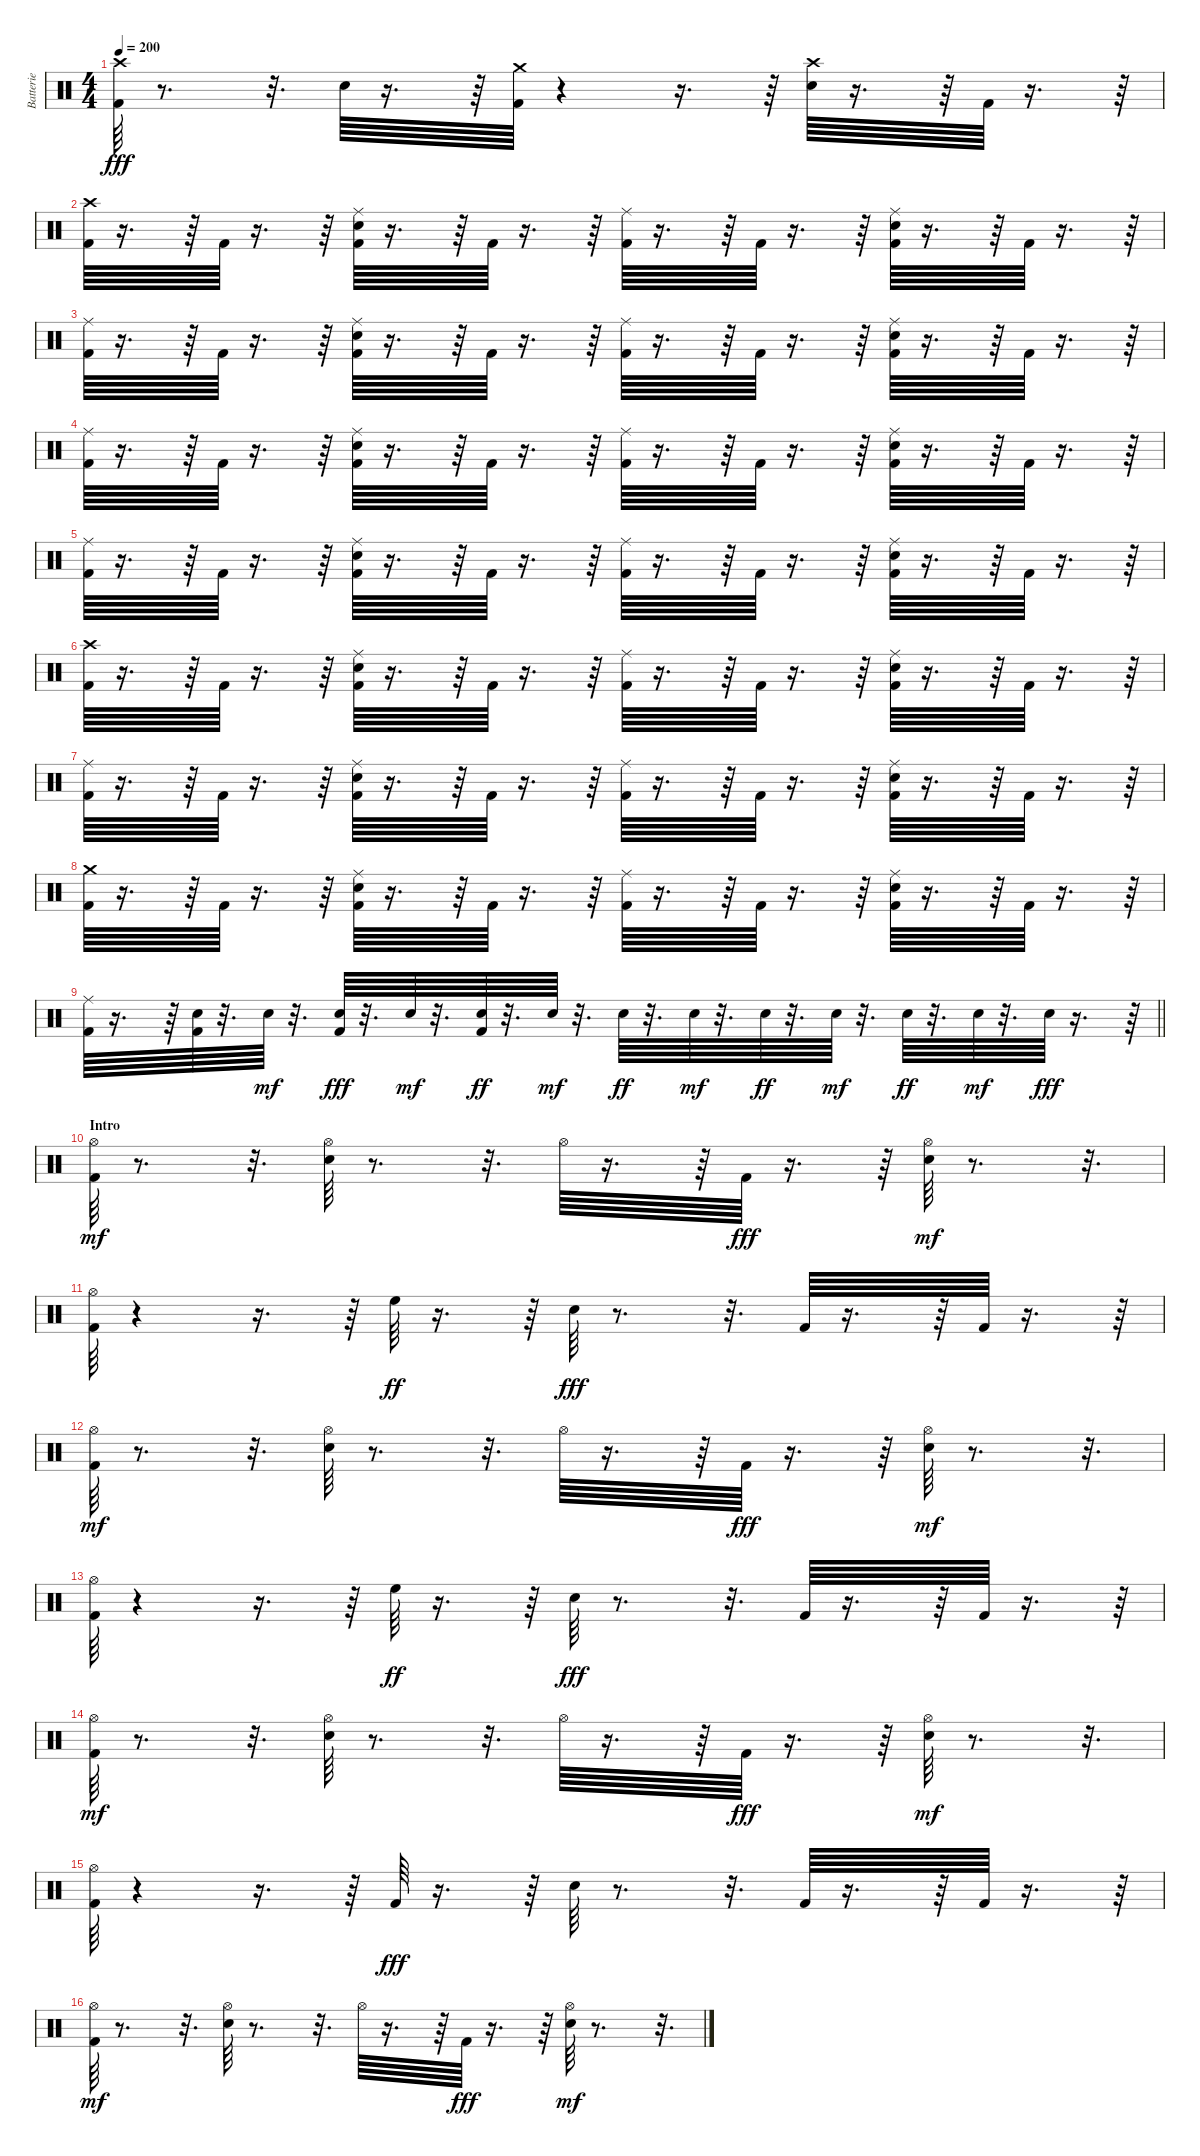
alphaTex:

\track ("Batterie" "Batterie") {instrument percussion}
\staff {score}
\articulation defaults
\ts (4 4)
\tempo 200
\clef neutral
\ks c
("Kick (hit) 2" "Crash high (hit)").64{dy fff} r.8{d} r.32{d} "Snare (hit) 2".64 r.16{d} r.64 ("Kick (hit) 2" "Crash medium (hit)").64 r.4 r.16{d} r.64 ("Snare (hit) 2" "Crash high (hit)").64 r.16{d} r.64 "Kick (hit) 2".64 r.16{d} r.64 |
("Kick (hit) 2" "Crash high (hit)").64 r.16{d} r.64 "Kick (hit) 2".64 r.16{d} r.64 ("Kick (hit) 2" "Snare (hit) 2" "Ride (middle)").64 r.16{d} r.64 "Kick (hit) 2".64 r.16{d} r.64 ("Kick (hit) 2" "Ride (middle)").64 r.16{d} r.64 "Kick (hit) 2".64 r.16{d} r.64 ("Kick (hit) 2" "Snare (hit) 2" "Ride (middle)").64 r.16{d} r.64 "Kick (hit) 2".64 r.16{d} r.64 |
("Kick (hit) 2" "Ride (middle)").64 r.16{d} r.64 "Kick (hit) 2".64 r.16{d} r.64 ("Kick (hit) 2" "Snare (hit) 2" "Ride (middle)").64 r.16{d} r.64 "Kick (hit) 2".64 r.16{d} r.64 ("Kick (hit) 2" "Ride (middle)").64 r.16{d} r.64 "Kick (hit) 2".64 r.16{d} r.64 ("Kick (hit) 2" "Snare (hit) 2" "Ride (middle)").64 r.16{d} r.64 "Kick (hit) 2".64 r.16{d} r.64 |
("Kick (hit) 2" "Ride (middle)").64 r.16{d} r.64 "Kick (hit) 2".64 r.16{d} r.64 ("Kick (hit) 2" "Snare (hit) 2" "Ride (middle)").64 r.16{d} r.64 "Kick (hit) 2".64 r.16{d} r.64 ("Kick (hit) 2" "Ride (middle)").64 r.16{d} r.64 "Kick (hit) 2".64 r.16{d} r.64 ("Kick (hit) 2" "Snare (hit) 2" "Ride (middle)").64 r.16{d} r.64 "Kick (hit) 2".64 r.16{d} r.64 |
("Kick (hit) 2" "Ride (middle)").64 r.16{d} r.64 "Kick (hit) 2".64 r.16{d} r.64 ("Kick (hit) 2" "Snare (hit) 2" "Ride (middle)").64 r.16{d} r.64 "Kick (hit) 2".64 r.16{d} r.64 ("Kick (hit) 2" "Ride (middle)").64 r.16{d} r.64 "Kick (hit) 2".64 r.16{d} r.64 ("Kick (hit) 2" "Snare (hit) 2" "Ride (middle)").64 r.16{d} r.64 "Kick (hit) 2".64 r.16{d} r.64 |
("Kick (hit) 2" "Crash high (hit)").64 r.16{d} r.64 "Kick (hit) 2".64 r.16{d} r.64 ("Kick (hit) 2" "Snare (hit) 2" "Ride (middle)").64 r.16{d} r.64 "Kick (hit) 2".64 r.16{d} r.64 ("Kick (hit) 2" "Ride (middle)").64 r.16{d} r.64 "Kick (hit) 2".64 r.16{d} r.64 ("Kick (hit) 2" "Snare (hit) 2" "Ride (middle)").64 r.16{d} r.64 "Kick (hit) 2".64 r.16{d} r.64 |
("Kick (hit) 2" "Ride (middle)").64 r.16{d} r.64 "Kick (hit) 2".64 r.16{d} r.64 ("Kick (hit) 2" "Snare (hit) 2" "Ride (middle)").64 r.16{d} r.64 "Kick (hit) 2".64 r.16{d} r.64 ("Kick (hit) 2" "Ride (middle)").64 r.16{d} r.64 "Kick (hit) 2".64 r.16{d} r.64 ("Kick (hit) 2" "Snare (hit) 2" "Ride (middle)").64 r.16{d} r.64 "Kick (hit) 2".64 r.16{d} r.64 |
("Kick (hit) 2" "Crash medium (hit)").64 r.16{d} r.64 "Kick (hit) 2".64 r.16{d} r.64 ("Kick (hit) 2" "Snare (hit) 2" "Ride (middle)").64 r.16{d} r.64 "Kick (hit) 2".64 r.16{d} r.64 ("Kick (hit) 2" "Ride (middle)").64 r.16{d} r.64 "Kick (hit) 2".64 r.16{d} r.64 ("Kick (hit) 2" "Snare (hit) 2" "Ride (middle)").64 r.16{d} r.64 "Kick (hit) 2".64 r.16{d} r.64 |
\barLineRight lightlight
("Kick (hit) 2" "Ride (middle)").64 r.16{d} r.64 ("Snare (hit) 2" "Kick (hit) 2").64 r.32{d} "Snare (hit) 2".64{dy mf} r.32{d} ("Snare (hit) 2" "Kick (hit) 2").64{dy fff} r.32{d} "Snare (hit) 2".64{dy mf} r.32{d} ("Kick (hit) 2" "Snare (hit) 2").64{dy ff} r.32{d} "Snare (hit) 2".64{dy mf} r.32{d} "Snare (hit) 2".64{dy ff} r.32{d} "Snare (hit) 2".64{dy mf} r.32{d} "Snare (hit) 2".64{dy ff} r.32{d} "Snare (hit) 2".64{dy mf} r.32{d} "Snare (hit) 2".64{dy ff} r.32{d} "Snare (hit) 2".64{dy mf} r.32{d} "Snare (hit) 2".64{dy fff} r.16{d} r.64 |
\section ("" "Intro")
("Kick (hit) 2" "Hi-Hat (open)").64{dy mf} r.8{d} r.32{d} ("Snare (hit) 2" "Hi-Hat (open)").64 r.8{d} r.32{d} "Hi-Hat (open)".64 r.16{d} r.64 "Kick (hit) 2".64{dy fff} r.16{d} r.64 ("Snare (hit) 2" "Hi-Hat (open)").64{dy mf} r.8{d} r.32{d} |
("Kick (hit) 2" "Hi-Hat (open)").64 r.4 r.16{d} r.64 "High Floor Tom (hit)".64{dy ff} r.16{d} r.64 "Snare (hit) 2".64{dy fff} r.8{d} r.32{d} "Kick (hit) 2".64 r.16{d} r.64 "Kick (hit) 2".64 r.16{d} r.64 |
("Kick (hit) 2" "Hi-Hat (open)").64{dy mf} r.8{d} r.32{d} ("Snare (hit) 2" "Hi-Hat (open)").64 r.8{d} r.32{d} "Hi-Hat (open)".64 r.16{d} r.64 "Kick (hit) 2".64{dy fff} r.16{d} r.64 ("Snare (hit) 2" "Hi-Hat (open)").64{dy mf} r.8{d} r.32{d} |
("Kick (hit) 2" "Hi-Hat (open)").64 r.4 r.16{d} r.64 "High Floor Tom (hit)".64{dy ff} r.16{d} r.64 "Snare (hit) 2".64{dy fff} r.8{d} r.32{d} "Kick (hit) 2".64 r.16{d} r.64 "Kick (hit) 2".64 r.16{d} r.64 |
("Kick (hit) 2" "Hi-Hat (open)").64{dy mf} r.8{d} r.32{d} ("Snare (hit) 2" "Hi-Hat (open)").64 r.8{d} r.32{d} "Hi-Hat (open)".64 r.16{d} r.64 "Kick (hit) 2".64{dy fff} r.16{d} r.64 ("Snare (hit) 2" "Hi-Hat (open)").64{dy mf} r.8{d} r.32{d} |
("Kick (hit) 2" "Hi-Hat (open)").64 r.4 r.16{d} r.64 "Kick (hit) 2".64{dy fff} r.16{d} r.64 "Snare (hit) 2".64 r.8{d} r.32{d} "Kick (hit) 2".64 r.16{d} r.64 "Kick (hit) 2".64 r.16{d} r.64 |
("Kick (hit) 2" "Hi-Hat (open)").64{dy mf} r.8{d} r.32{d} ("Snare (hit) 2" "Hi-Hat (open)").64 r.8{d} r.32{d} "Hi-Hat (open)".64 r.16{d} r.64 "Kick (hit) 2".64{dy fff} r.16{d} r.64 ("Snare (hit) 2" "Hi-Hat (open)").64{dy mf} r.8{d} r.32{d}
